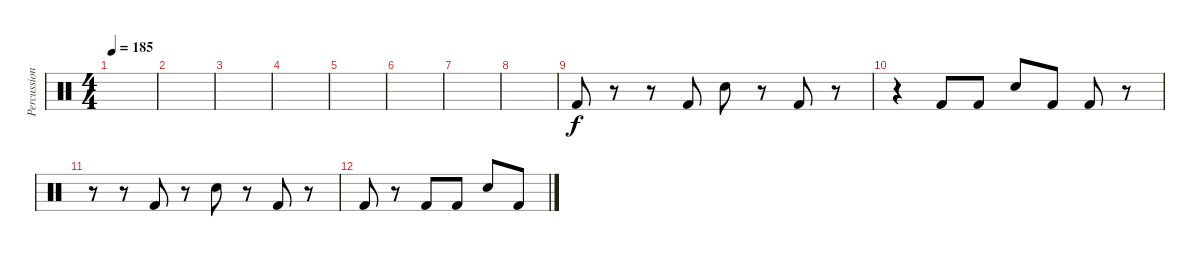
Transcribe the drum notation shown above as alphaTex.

\track ("Percussion" "Percussion") {instrument percussion}
\staff {score}
\articulation defaults
\ts (4 4)
\tempo 185
\clef neutral
\ks c
|
|
|
|
|
|
|
|
"Kick (hit) 2".8 r.8 r.8 "Kick (hit) 2".8 "Snare (hit) 2".8 r.8 "Kick (hit) 2".8 r.8 |
r.4 "Kick (hit) 2".8 "Kick (hit) 2".8 "Snare (hit) 2".8 "Kick (hit) 2".8 "Kick (hit) 2".8 r.8 |
r.8 r.8 "Kick (hit) 2".8 r.8 "Snare (hit) 2".8 r.8 "Kick (hit) 2".8 r.8 |
"Kick (hit) 2".8 r.8 "Kick (hit) 2".8 "Kick (hit) 2".8 "Snare (hit) 2".8 "Kick (hit) 2".8
